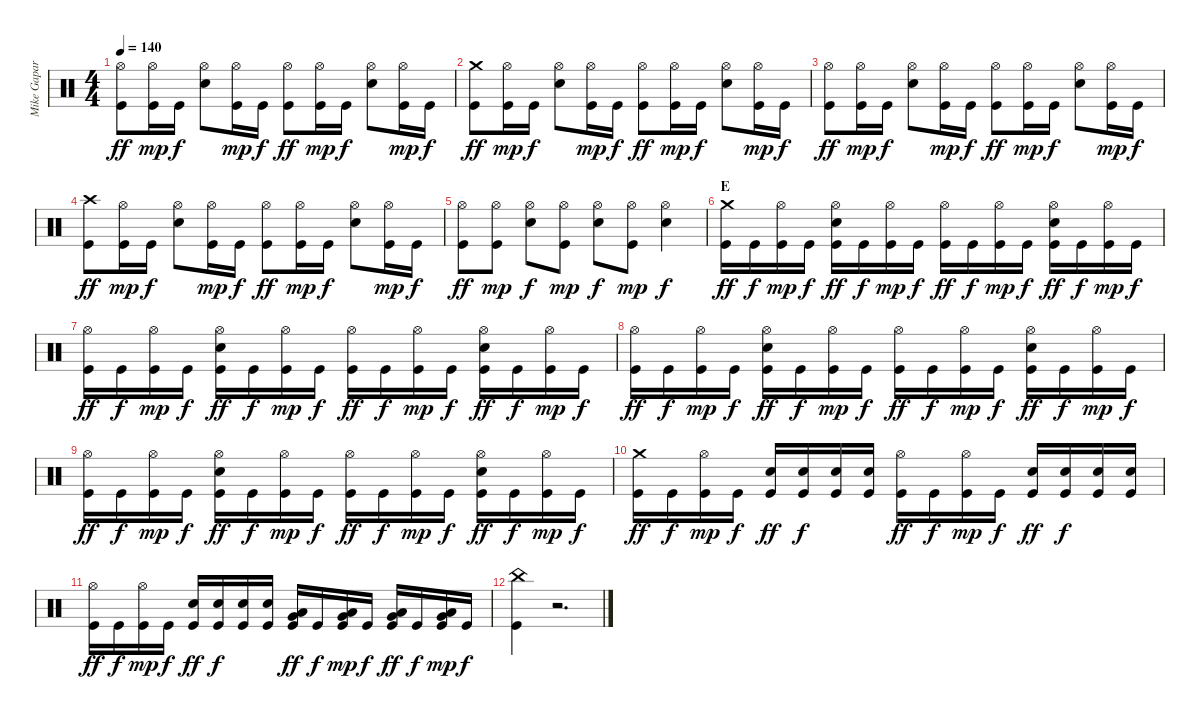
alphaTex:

\track ("Mike Gapar" "Mike Gapar") {instrument percussion}
\staff {score}
\articulation defaults
\ts (4 4)
\tempo 140
\clef neutral
\ks c
("Hi-Hat (open)" "Kick (hit)").8{dy ff} ("Hi-Hat (open)" "Kick (hit)").16{dy mp} "Kick (hit)".16{dy f} ("Hi-Hat (open)" "Electric Snare (hit)").8 ("Hi-Hat (open)" "Kick (hit)").16{dy mp} "Kick (hit)".16{dy f} ("Hi-Hat (open)" "Kick (hit)").8{dy ff} ("Hi-Hat (open)" "Kick (hit)").16{dy mp} "Kick (hit)".16{dy f} ("Hi-Hat (open)" "Electric Snare (hit)").8 ("Hi-Hat (open)" "Kick (hit)").16{dy mp} "Kick (hit)".16{dy f} |
("Crash medium (hit)" "Kick (hit)").8{dy ff} ("Hi-Hat (open)" "Kick (hit)").16{dy mp} "Kick (hit)".16{dy f} ("Hi-Hat (open)" "Electric Snare (hit)").8 ("Hi-Hat (open)" "Kick (hit)").16{dy mp} "Kick (hit)".16{dy f} ("Hi-Hat (open)" "Kick (hit)").8{dy ff} ("Hi-Hat (open)" "Kick (hit)").16{dy mp} "Kick (hit)".16{dy f} ("Hi-Hat (open)" "Electric Snare (hit)").8 ("Hi-Hat (open)" "Kick (hit)").16{dy mp} "Kick (hit)".16{dy f} |
("Hi-Hat (open)" "Kick (hit)").8{dy ff} ("Hi-Hat (open)" "Kick (hit)").16{dy mp} "Kick (hit)".16{dy f} ("Hi-Hat (open)" "Electric Snare (hit)").8 ("Hi-Hat (open)" "Kick (hit)").16{dy mp} "Kick (hit)".16{dy f} ("Hi-Hat (open)" "Kick (hit)").8{dy ff} ("Hi-Hat (open)" "Kick (hit)").16{dy mp} "Kick (hit)".16{dy f} ("Hi-Hat (open)" "Electric Snare (hit)").8 ("Hi-Hat (open)" "Kick (hit)").16{dy mp} "Kick (hit)".16{dy f} |
("Crash high (hit)" "Kick (hit)").8{dy ff} ("Hi-Hat (open)" "Kick (hit)").16{dy mp} "Kick (hit)".16{dy f} ("Hi-Hat (open)" "Electric Snare (hit)").8 ("Hi-Hat (open)" "Kick (hit)").16{dy mp} "Kick (hit)".16{dy f} ("Hi-Hat (open)" "Kick (hit)").8{dy ff} ("Hi-Hat (open)" "Kick (hit)").16{dy mp} "Kick (hit)".16{dy f} ("Hi-Hat (open)" "Electric Snare (hit)").8 ("Hi-Hat (open)" "Kick (hit)").16{dy mp} "Kick (hit)".16{dy f} |
("Hi-Hat (open)" "Kick (hit)").8{dy ff} ("Hi-Hat (open)" "Kick (hit)").8{dy mp} ("Hi-Hat (open)" "Electric Snare (hit)").8{dy f} ("Hi-Hat (open)" "Kick (hit)").8{dy mp} ("Hi-Hat (open)" "Electric Snare (hit)").8{dy f} ("Hi-Hat (open)" "Kick (hit)").8{dy mp} ("Hi-Hat (open)" "Electric Snare (hit)").4{dy f} |
\section ("" "E")
("Crash medium (hit)" "Kick (hit)").16{dy ff} "Kick (hit)".16{dy f} ("Hi-Hat (open)" "Kick (hit)").16{dy mp} "Kick (hit)".16{dy f} ("Hi-Hat (open)" "Electric Snare (hit)" "Kick (hit)").16{dy ff} "Kick (hit)".16{dy f} ("Hi-Hat (open)" "Kick (hit)").16{dy mp} "Kick (hit)".16{dy f} ("Hi-Hat (open)" "Kick (hit)").16{dy ff} "Kick (hit)".16{dy f} ("Hi-Hat (open)" "Kick (hit)").16{dy mp} "Kick (hit)".16{dy f} ("Hi-Hat (open)" "Electric Snare (hit)" "Kick (hit)").16{dy ff} "Kick (hit)".16{dy f} ("Hi-Hat (open)" "Kick (hit)").16{dy mp} "Kick (hit)".16{dy f} |
("Hi-Hat (open)" "Kick (hit)").16{dy ff} "Kick (hit)".16{dy f} ("Hi-Hat (open)" "Kick (hit)").16{dy mp} "Kick (hit)".16{dy f} ("Hi-Hat (open)" "Electric Snare (hit)" "Kick (hit)").16{dy ff} "Kick (hit)".16{dy f} ("Hi-Hat (open)" "Kick (hit)").16{dy mp} "Kick (hit)".16{dy f} ("Hi-Hat (open)" "Kick (hit)").16{dy ff} "Kick (hit)".16{dy f} ("Hi-Hat (open)" "Kick (hit)").16{dy mp} "Kick (hit)".16{dy f} ("Hi-Hat (open)" "Electric Snare (hit)" "Kick (hit)").16{dy ff} "Kick (hit)".16{dy f} ("Hi-Hat (open)" "Kick (hit)").16{dy mp} "Kick (hit)".16{dy f} |
("Hi-Hat (open)" "Kick (hit)").16{dy ff} "Kick (hit)".16{dy f} ("Hi-Hat (open)" "Kick (hit)").16{dy mp} "Kick (hit)".16{dy f} ("Hi-Hat (open)" "Electric Snare (hit)" "Kick (hit)").16{dy ff} "Kick (hit)".16{dy f} ("Hi-Hat (open)" "Kick (hit)").16{dy mp} "Kick (hit)".16{dy f} ("Hi-Hat (open)" "Kick (hit)").16{dy ff} "Kick (hit)".16{dy f} ("Hi-Hat (open)" "Kick (hit)").16{dy mp} "Kick (hit)".16{dy f} ("Hi-Hat (open)" "Electric Snare (hit)" "Kick (hit)").16{dy ff} "Kick (hit)".16{dy f} ("Hi-Hat (open)" "Kick (hit)").16{dy mp} "Kick (hit)".16{dy f} |
("Hi-Hat (open)" "Kick (hit)").16{dy ff} "Kick (hit)".16{dy f} ("Hi-Hat (open)" "Kick (hit)").16{dy mp} "Kick (hit)".16{dy f} ("Hi-Hat (open)" "Electric Snare (hit)" "Kick (hit)").16{dy ff} "Kick (hit)".16{dy f} ("Hi-Hat (open)" "Kick (hit)").16{dy mp} "Kick (hit)".16{dy f} ("Hi-Hat (open)" "Kick (hit)").16{dy ff} "Kick (hit)".16{dy f} ("Hi-Hat (open)" "Kick (hit)").16{dy mp} "Kick (hit)".16{dy f} ("Hi-Hat (open)" "Electric Snare (hit)" "Kick (hit)").16{dy ff} "Kick (hit)".16{dy f} ("Hi-Hat (open)" "Kick (hit)").16{dy mp} "Kick (hit)".16{dy f} |
("Crash medium (hit)" "Kick (hit)").16{dy ff} "Kick (hit)".16{dy f} ("Hi-Hat (open)" "Kick (hit)").16{dy mp} "Kick (hit)".16{dy f} ("Electric Snare (hit)" "Kick (hit)").16{dy ff} ("Electric Snare (hit)" "Kick (hit)").16{dy f} ("Electric Snare (hit)" "Kick (hit)").16 ("Electric Snare (hit)" "Kick (hit)").16 ("Hi-Hat (open)" "Kick (hit)").16{dy ff} "Kick (hit)".16{dy f} ("Hi-Hat (open)" "Kick (hit)").16{dy mp} "Kick (hit)".16{dy f} ("Electric Snare (hit)" "Kick (hit)").16{dy ff} ("Electric Snare (hit)" "Kick (hit)").16{dy f} ("Electric Snare (hit)" "Kick (hit)").16 ("Electric Snare (hit)" "Kick (hit)").16 |
("Hi-Hat (open)" "Kick (hit)").16{dy ff} "Kick (hit)".16{dy f} ("Hi-Hat (open)" "Kick (hit)").16{dy mp} "Kick (hit)".16{dy f} ("Electric Snare (hit)" "Kick (hit)").16{dy ff} ("Electric Snare (hit)" "Kick (hit)").16{dy f} ("Electric Snare (hit)" "Kick (hit)").16 ("Electric Snare (hit)" "Kick (hit)").16 ("Very Low Tom (hit)" "Low Floor Tom (hit)" "Kick (hit)").16{dy ff} "Kick (hit)".16{dy f} ("Very Low Tom (hit)" "Low Floor Tom (hit)" "Kick (hit)").16{dy mp} "Kick (hit)".16{dy f} ("Very Low Tom (hit)" "Low Floor Tom (hit)" "Kick (hit)").16{dy ff} "Kick (hit)".16{dy f} ("Very Low Tom (hit)" "Low Floor Tom (hit)" "Kick (hit)").16{dy mp} "Kick (hit)".16{dy f} |
("China (hit)" "Kick (hit)").4 r.2{d}
